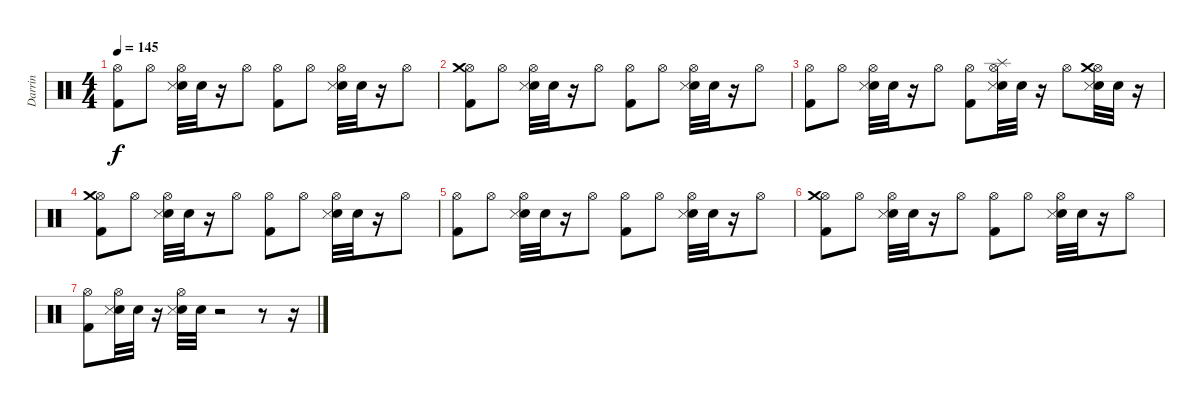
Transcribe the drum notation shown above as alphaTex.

\track ("Darrin" "Darrin") {instrument percussion}
\staff {score}
\articulation defaults
\ts (4 4)
\tempo 145
\clef neutral
\ks c
("Kick (hit) 2" "Hi-Hat (open)").8{dy f} "Hi-Hat (open)".8 ("Snare (hit) 2" "Snare (side stick) 3" "Hi-Hat (open)").32 "Snare (hit) 2".32 r.16 "Hi-Hat (open)".8 ("Kick (hit) 2" "Hi-Hat (open)").8 "Hi-Hat (open)".8 ("Snare (hit) 2" "Snare (side stick) 3" "Hi-Hat (open)").32 "Snare (hit) 2".32 r.16 "Hi-Hat (open)".8 |
("Kick (hit) 2" "Hi-Hat (open)" "Crash medium (hit)").8 "Hi-Hat (open)".8 ("Snare (hit) 2" "Snare (side stick) 3" "Hi-Hat (open)").32 "Snare (hit) 2".32 r.16 "Hi-Hat (open)".8 ("Kick (hit) 2" "Hi-Hat (open)").8 "Hi-Hat (open)".8 ("Snare (hit) 2" "Snare (side stick) 3" "Hi-Hat (open)").32 "Snare (hit) 2".32 r.16 "Hi-Hat (open)".8 |
("Kick (hit) 2" "Hi-Hat (open)").8 "Hi-Hat (open)".8 ("Snare (hit) 2" "Snare (side stick) 3" "Hi-Hat (open)").32 "Snare (hit) 2".32 r.16 "Hi-Hat (open)".8 ("Kick (hit) 2" "Hi-Hat (open)").8 ("Hi-Hat (open)" "Snare (hit) 2" "Snare (side stick) 3" "Splash (hit)").32 "Snare (hit) 2".32 r.16 "Hi-Hat (open)".8 ("Hi-Hat (open)" "Snare (hit) 2" "Snare (side stick) 3" "Crash medium (hit)").32 "Snare (hit) 2".32 r.16 |
("Kick (hit) 2" "Hi-Hat (open)" "Crash medium (hit)").8 "Hi-Hat (open)".8 ("Snare (hit) 2" "Snare (side stick) 3" "Hi-Hat (open)").32 "Snare (hit) 2".32 r.16 "Hi-Hat (open)".8 ("Kick (hit) 2" "Hi-Hat (open)").8 "Hi-Hat (open)".8 ("Snare (hit) 2" "Snare (side stick) 3" "Hi-Hat (open)").32 "Snare (hit) 2".32 r.16 "Hi-Hat (open)".8 |
("Kick (hit) 2" "Hi-Hat (open)").8 "Hi-Hat (open)".8 ("Snare (hit) 2" "Snare (side stick) 3" "Hi-Hat (open)").32 "Snare (hit) 2".32 r.16 "Hi-Hat (open)".8 ("Kick (hit) 2" "Hi-Hat (open)").8 "Hi-Hat (open)".8 ("Snare (hit) 2" "Snare (side stick) 3" "Hi-Hat (open)").32 "Snare (hit) 2".32 r.16 "Hi-Hat (open)".8 |
("Kick (hit) 2" "Hi-Hat (open)" "Crash medium (hit)").8 "Hi-Hat (open)".8 ("Snare (hit) 2" "Snare (side stick) 3" "Hi-Hat (open)").32 "Snare (hit) 2".32 r.16 "Hi-Hat (open)".8 ("Kick (hit) 2" "Hi-Hat (open)").8 "Hi-Hat (open)".8 ("Snare (hit) 2" "Snare (side stick) 3" "Hi-Hat (open)").32 "Snare (hit) 2".32 r.16 "Hi-Hat (open)".8 |
("Hi-Hat (open)" "Kick (hit) 2").8 ("Hi-Hat (open)" "Snare (hit) 2" "Snare (side stick) 3").32 "Snare (hit) 2".32 r.16 ("Hi-Hat (open)" "Snare (hit) 2" "Snare (side stick) 3").32 "Snare (hit) 2".32 r.2 r.8 r.16
